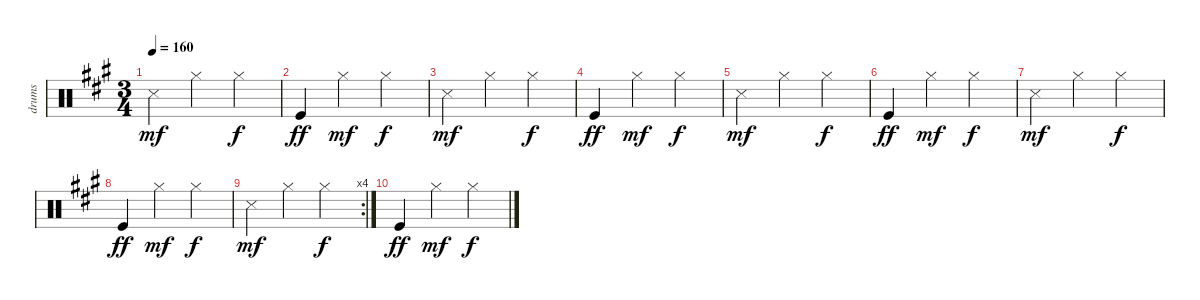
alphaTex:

\track ("drums" "drums") {instrument percussion}
\staff {score}
\articulation defaults
\ts (3 4)
\tempo 160
\clef neutral
\ks a "Snare (side stick) 3".4{dy mf} "Hi-Hat (closed)".4 "Hi-Hat (closed)".4{dy f}
|
"Kick (hit)".4{dy ff} "Hi-Hat (closed)".4{dy mf} "Hi-Hat (closed)".4{dy f} |
"Snare (side stick) 3".4{dy mf} "Hi-Hat (closed)".4 "Hi-Hat (closed)".4{dy f} |
"Kick (hit)".4{dy ff} "Hi-Hat (closed)".4{dy mf} "Hi-Hat (closed)".4{dy f} |
"Snare (side stick) 3".4{dy mf} "Hi-Hat (closed)".4 "Hi-Hat (closed)".4{dy f} |
"Kick (hit)".4{dy ff} "Hi-Hat (closed)".4{dy mf} "Hi-Hat (closed)".4{dy f} |
"Snare (side stick) 3".4{dy mf} "Hi-Hat (closed)".4 "Hi-Hat (closed)".4{dy f} |
"Kick (hit)".4{dy ff} "Hi-Hat (closed)".4{dy mf} "Hi-Hat (closed)".4{dy f} |
\rc 4 "Snare (side stick) 3".4{dy mf} "Hi-Hat (closed)".4 "Hi-Hat (closed)".4{dy f}
|
"Kick (hit)".4{dy ff} "Hi-Hat (closed)".4{dy mf} "Hi-Hat (closed)".4{dy f}
